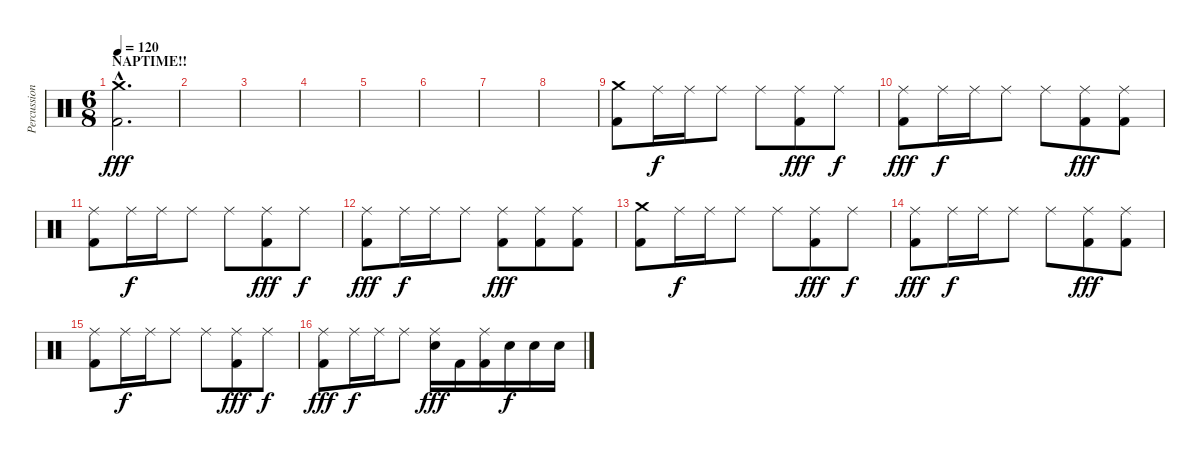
\track ("Percussion" "Percussion") {instrument percussion}
\staff {score}
\articulation defaults
\ts (6 8)
\section ("" "NAPTIME!! ")
\tempo 120
\clef neutral
\ks c
("Crash medium (hit)"{hac} "Kick (hit) 2"{hac}).2{d dy fff} |
|
|
|
|
|
|
|
("Crash medium (hit)" "Kick (hit) 2").8 "Ride (middle)".16{dy f} "Ride (middle)".16 "Ride (middle)".8 "Ride (middle)".8 ("Ride (middle)" "Kick (hit) 2").8{dy fff} "Ride (middle)".8{dy f} |
("Ride (middle)" "Kick (hit) 2").8{dy fff} "Ride (middle)".16{dy f} "Ride (middle)".16 "Ride (middle)".8 "Ride (middle)".8 ("Ride (middle)" "Kick (hit) 2").8{dy fff} ("Ride (middle)" "Kick (hit) 2").8 |
("Ride (middle)" "Kick (hit) 2").8 "Ride (middle)".16{dy f} "Ride (middle)".16 "Ride (middle)".8 "Ride (middle)".8 ("Ride (middle)" "Kick (hit) 2").8{dy fff} "Ride (middle)".8{dy f} |
("Ride (middle)" "Kick (hit) 2").8{dy fff} "Ride (middle)".16{dy f} "Ride (middle)".16 "Ride (middle)".8 ("Ride (middle)" "Kick (hit) 2").8{dy fff} ("Ride (middle)" "Kick (hit) 2").8 ("Ride (middle)" "Kick (hit) 2").8 |
("Crash medium (hit)" "Kick (hit) 2").8 "Ride (middle)".16{dy f} "Ride (middle)".16 "Ride (middle)".8 "Ride (middle)".8 ("Ride (middle)" "Kick (hit) 2").8{dy fff} "Ride (middle)".8{dy f} |
("Ride (middle)" "Kick (hit) 2").8{dy fff} "Ride (middle)".16{dy f} "Ride (middle)".16 "Ride (middle)".8 "Ride (middle)".8 ("Ride (middle)" "Kick (hit) 2").8{dy fff} ("Ride (middle)" "Kick (hit) 2").8 |
("Ride (middle)" "Kick (hit) 2").8 "Ride (middle)".16{dy f} "Ride (middle)".16 "Ride (middle)".8 "Ride (middle)".8 ("Ride (middle)" "Kick (hit) 2").8{dy fff} "Ride (middle)".8{dy f} |
("Ride (middle)" "Kick (hit) 2").8{dy fff} "Ride (middle)".16{dy f} "Ride (middle)".16 "Ride (middle)".8 ("Ride (middle)" "Electric Snare (hit)").16{dy fff} "Kick (hit) 2".16 ("Ride (middle)" "Kick (hit) 2").16 "Electric Snare (hit)".16{dy f} "Electric Snare (hit)".16 "Electric Snare (hit)".16
